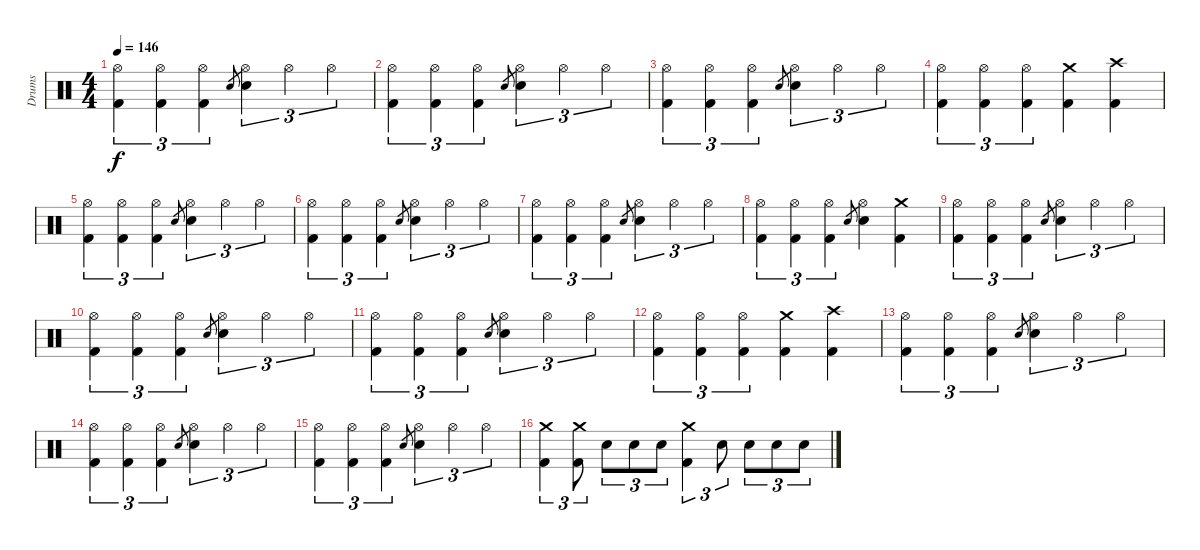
\track ("Drums" "Drums") {instrument percussion}
\staff {score}
\articulation defaults
\ts (4 4)
\tempo 146
\clef neutral
\ks c
("Hi-Hat (open)" "Kick (hit) 2").4{tu (3 2) dy f} ("Hi-Hat (open)" "Kick (hit) 2").4{tu (3 2)} ("Hi-Hat (open)" "Kick (hit) 2").4{tu (3 2)} "Snare (hit) 2".8{gr} ("Hi-Hat (open)" "Snare (hit) 2").4{tu (3 2)} "Hi-Hat (open)".4{tu (3 2)} "Hi-Hat (open)".4{tu (3 2)} |
("Hi-Hat (open)" "Kick (hit) 2").4{tu (3 2)} ("Hi-Hat (open)" "Kick (hit) 2").4{tu (3 2)} ("Hi-Hat (open)" "Kick (hit) 2").4{tu (3 2)} "Snare (hit) 2".8{gr} ("Hi-Hat (open)" "Snare (hit) 2").4{tu (3 2)} "Hi-Hat (open)".4{tu (3 2)} "Hi-Hat (open)".4{tu (3 2)} |
("Hi-Hat (open)" "Kick (hit) 2").4{tu (3 2)} ("Hi-Hat (open)" "Kick (hit) 2").4{tu (3 2)} ("Hi-Hat (open)" "Kick (hit) 2").4{tu (3 2)} "Snare (hit) 2".8{gr} ("Hi-Hat (open)" "Snare (hit) 2").4{tu (3 2)} "Hi-Hat (open)".4{tu (3 2)} "Hi-Hat (open)".4{tu (3 2)} |
("Hi-Hat (open)" "Kick (hit) 2").4{tu (3 2)} ("Hi-Hat (open)" "Kick (hit) 2").4{tu (3 2)} ("Hi-Hat (open)" "Kick (hit) 2").4{tu (3 2)} ("Crash medium (hit)" "Kick (hit) 2").4 ("Crash high (hit)" "Kick (hit) 2").4 |
("Hi-Hat (open)" "Kick (hit) 2").4{tu (3 2)} ("Hi-Hat (open)" "Kick (hit) 2").4{tu (3 2)} ("Hi-Hat (open)" "Kick (hit) 2").4{tu (3 2)} "Snare (hit) 2".8{gr} ("Hi-Hat (open)" "Snare (hit) 2").4{tu (3 2)} "Hi-Hat (open)".4{tu (3 2)} "Hi-Hat (open)".4{tu (3 2)} |
("Hi-Hat (open)" "Kick (hit) 2").4{tu (3 2)} ("Hi-Hat (open)" "Kick (hit) 2").4{tu (3 2)} ("Hi-Hat (open)" "Kick (hit) 2").4{tu (3 2)} "Snare (hit) 2".8{gr} ("Hi-Hat (open)" "Snare (hit) 2").4{tu (3 2)} "Hi-Hat (open)".4{tu (3 2)} "Hi-Hat (open)".4{tu (3 2)} |
("Hi-Hat (open)" "Kick (hit) 2").4{tu (3 2)} ("Hi-Hat (open)" "Kick (hit) 2").4{tu (3 2)} ("Hi-Hat (open)" "Kick (hit) 2").4{tu (3 2)} "Snare (hit) 2".8{gr} ("Hi-Hat (open)" "Snare (hit) 2").4{tu (3 2)} "Hi-Hat (open)".4{tu (3 2)} "Hi-Hat (open)".4{tu (3 2)} |
("Hi-Hat (open)" "Kick (hit) 2").4{tu (3 2)} ("Hi-Hat (open)" "Kick (hit) 2").4{tu (3 2)} ("Hi-Hat (open)" "Kick (hit) 2").4{tu (3 2)} "Snare (hit) 2".8{gr} ("Hi-Hat (open)" "Snare (hit) 2").4 ("Crash medium (hit)" "Kick (hit) 2").4 |
("Hi-Hat (open)" "Kick (hit) 2").4{tu (3 2)} ("Hi-Hat (open)" "Kick (hit) 2").4{tu (3 2)} ("Hi-Hat (open)" "Kick (hit) 2").4{tu (3 2)} "Snare (hit) 2".8{gr} ("Hi-Hat (open)" "Snare (hit) 2").4{tu (3 2)} "Hi-Hat (open)".4{tu (3 2)} "Hi-Hat (open)".4{tu (3 2)} |
("Hi-Hat (open)" "Kick (hit) 2").4{tu (3 2)} ("Hi-Hat (open)" "Kick (hit) 2").4{tu (3 2)} ("Hi-Hat (open)" "Kick (hit) 2").4{tu (3 2)} "Snare (hit) 2".8{gr} ("Hi-Hat (open)" "Snare (hit) 2").4{tu (3 2)} "Hi-Hat (open)".4{tu (3 2)} "Hi-Hat (open)".4{tu (3 2)} |
("Hi-Hat (open)" "Kick (hit) 2").4{tu (3 2)} ("Hi-Hat (open)" "Kick (hit) 2").4{tu (3 2)} ("Hi-Hat (open)" "Kick (hit) 2").4{tu (3 2)} "Snare (hit) 2".8{gr} ("Hi-Hat (open)" "Snare (hit) 2").4{tu (3 2)} "Hi-Hat (open)".4{tu (3 2)} "Hi-Hat (open)".4{tu (3 2)} |
("Hi-Hat (open)" "Kick (hit) 2").4{tu (3 2)} ("Hi-Hat (open)" "Kick (hit) 2").4{tu (3 2)} ("Hi-Hat (open)" "Kick (hit) 2").4{tu (3 2)} ("Crash medium (hit)" "Kick (hit) 2").4 ("Crash high (hit)" "Kick (hit) 2").4 |
("Hi-Hat (open)" "Kick (hit) 2").4{tu (3 2)} ("Hi-Hat (open)" "Kick (hit) 2").4{tu (3 2)} ("Hi-Hat (open)" "Kick (hit) 2").4{tu (3 2)} "Snare (hit) 2".8{gr} ("Hi-Hat (open)" "Snare (hit) 2").4{tu (3 2)} "Hi-Hat (open)".4{tu (3 2)} "Hi-Hat (open)".4{tu (3 2)} |
("Hi-Hat (open)" "Kick (hit) 2").4{tu (3 2)} ("Hi-Hat (open)" "Kick (hit) 2").4{tu (3 2)} ("Hi-Hat (open)" "Kick (hit) 2").4{tu (3 2)} "Snare (hit) 2".8{gr} ("Hi-Hat (open)" "Snare (hit) 2").4{tu (3 2)} "Hi-Hat (open)".4{tu (3 2)} "Hi-Hat (open)".4{tu (3 2)} |
("Hi-Hat (open)" "Kick (hit) 2").4{tu (3 2)} ("Hi-Hat (open)" "Kick (hit) 2").4{tu (3 2)} ("Hi-Hat (open)" "Kick (hit) 2").4{tu (3 2)} "Snare (hit) 2".8{gr} ("Hi-Hat (open)" "Snare (hit) 2").4{tu (3 2)} "Hi-Hat (open)".4{tu (3 2)} "Hi-Hat (open)".4{tu (3 2)} |
("Crash medium (hit)" "Kick (hit) 2").4{tu (3 2)} ("Crash medium (hit)" "Kick (hit) 2").8{tu (3 2)} "Snare (hit) 2".8{tu (3 2)} "Snare (hit) 2".8{tu (3 2)} "Snare (hit) 2".8{tu (3 2)} ("Crash medium (hit)" "Kick (hit) 2").4{tu (3 2)} "Snare (hit) 2".8{tu (3 2)} "Snare (hit) 2".8{tu (3 2)} "Snare (hit) 2".8{tu (3 2)} "Snare (hit) 2".8{tu (3 2)}
